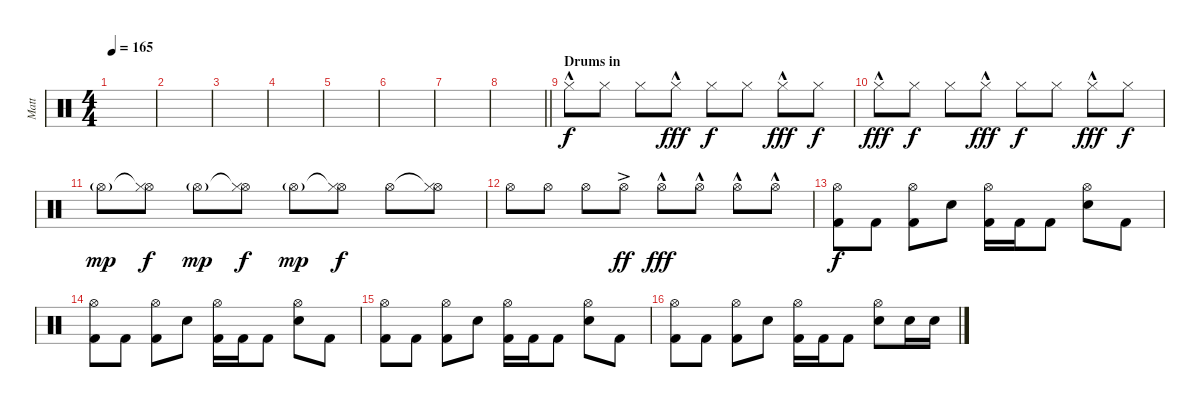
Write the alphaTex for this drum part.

\track ("Matt" "Matt") {instrument percussion}
\staff {score}
\articulation defaults
\ts (4 4)
\tempo 165
\clef neutral
\ks c
|
|
|
|
|
|
|
\barLineRight lightlight
|
\section ("" "Drums in")
"Hi-Hat (closed)"{hac}.8 "Hi-Hat (closed)".8{dy f} "Hi-Hat (closed)".8 "Hi-Hat (closed)"{hac}.8{dy fff} "Hi-Hat (closed)".8{dy f} "Hi-Hat (closed)".8 "Hi-Hat (closed)"{hac}.8{dy fff} "Hi-Hat (closed)".8{dy f} |
"Hi-Hat (closed)"{hac}.8{dy fff} "Hi-Hat (closed)".8{dy f} "Hi-Hat (closed)".8 "Hi-Hat (closed)"{hac}.8{dy fff} "Hi-Hat (closed)".8{dy f} "Hi-Hat (closed)".8 "Hi-Hat (closed)"{hac}.8{dy fff} "Hi-Hat (closed)".8{dy f} |
"Hi-Hat (open)"{g}.8{dy mp} ("Hi-Hat (open)"{t} "Hi-Hat (closed)").8{dy f} "Hi-Hat (open)"{g}.8{dy mp} ("Hi-Hat (open)"{t} "Hi-Hat (closed)").8{dy f} "Hi-Hat (open)"{g}.8{dy mp} ("Hi-Hat (open)"{t} "Hi-Hat (closed)").8{dy f} "Hi-Hat (open)".8 ("Hi-Hat (open)"{t} "Hi-Hat (closed)").8 |
"Hi-Hat (open)".8 "Hi-Hat (open)".8 "Hi-Hat (open)".8 "Hi-Hat (open)"{ac}.8{dy ff} "Hi-Hat (open)"{hac}.8{dy fff} "Hi-Hat (open)"{hac}.8 "Hi-Hat (open)"{hac}.8 "Hi-Hat (open)"{hac}.8 |
("Hi-Hat (open)" "Kick (hit) 2").8{dy f} "Kick (hit) 2".8 ("Hi-Hat (open)" "Kick (hit) 2").8 "Electric Snare (hit)".8 ("Hi-Hat (open)" "Kick (hit) 2").16 "Kick (hit) 2".16 "Kick (hit) 2".8 ("Hi-Hat (open)" "Electric Snare (hit)").8 "Kick (hit) 2".8 |
("Hi-Hat (open)" "Kick (hit) 2").8 "Kick (hit) 2".8 ("Hi-Hat (open)" "Kick (hit) 2").8 "Electric Snare (hit)".8 ("Hi-Hat (open)" "Kick (hit) 2").16 "Kick (hit) 2".16 "Kick (hit) 2".8 ("Hi-Hat (open)" "Electric Snare (hit)").8 "Kick (hit) 2".8 |
("Hi-Hat (open)" "Kick (hit) 2").8 "Kick (hit) 2".8 ("Hi-Hat (open)" "Kick (hit) 2").8 "Electric Snare (hit)".8 ("Hi-Hat (open)" "Kick (hit) 2").16 "Kick (hit) 2".16 "Kick (hit) 2".8 ("Hi-Hat (open)" "Electric Snare (hit)").8 "Kick (hit) 2".8 |
("Hi-Hat (open)" "Kick (hit) 2").8 "Kick (hit) 2".8 ("Hi-Hat (open)" "Kick (hit) 2").8 "Electric Snare (hit)".8 ("Hi-Hat (open)" "Kick (hit) 2").16 "Kick (hit) 2".16 "Kick (hit) 2".8 ("Hi-Hat (open)" "Electric Snare (hit)").8 "Electric Snare (hit)".16 "Electric Snare (hit)".16
